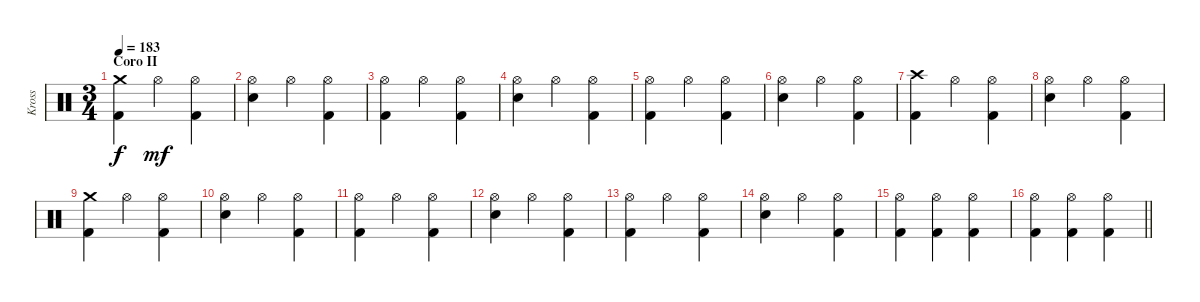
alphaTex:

\track ("Kross" "Kross") {instrument percussion}
\staff {score}
\articulation defaults
\ts (3 4)
\section ("" "Coro II")
\tempo 183
\clef neutral
\ks c
("Crash medium (hit)" "Kick (hit) 2").4{dy f} "Hi-Hat (open)".4{dy mf} ("Hi-Hat (open)" "Kick (hit) 2").4 |
("Hi-Hat (open)" "Electric Snare (hit)").4 "Hi-Hat (open)".4 ("Hi-Hat (open)" "Kick (hit) 2").4 |
("Hi-Hat (open)" "Kick (hit) 2").4 "Hi-Hat (open)".4 ("Hi-Hat (open)" "Kick (hit) 2").4 |
("Hi-Hat (open)" "Electric Snare (hit)").4 "Hi-Hat (open)".4 ("Hi-Hat (open)" "Kick (hit) 2").4 |
("Hi-Hat (open)" "Kick (hit) 2").4 "Hi-Hat (open)".4 ("Hi-Hat (open)" "Kick (hit) 2").4 |
("Hi-Hat (open)" "Electric Snare (hit)").4 "Hi-Hat (open)".4 ("Hi-Hat (open)" "Kick (hit) 2").4 |
("Crash high (hit)" "Kick (hit) 2").4 "Hi-Hat (open)".4 ("Hi-Hat (open)" "Kick (hit) 2").4 |
("Hi-Hat (open)" "Electric Snare (hit)").4 "Hi-Hat (open)".4 ("Hi-Hat (open)" "Kick (hit) 2").4 |
("Crash medium (hit)" "Kick (hit) 2").4 "Hi-Hat (open)".4 ("Hi-Hat (open)" "Kick (hit) 2").4 |
("Hi-Hat (open)" "Electric Snare (hit)").4 "Hi-Hat (open)".4 ("Hi-Hat (open)" "Kick (hit) 2").4 |
("Hi-Hat (open)" "Kick (hit) 2").4 "Hi-Hat (open)".4 ("Hi-Hat (open)" "Kick (hit) 2").4 |
("Hi-Hat (open)" "Electric Snare (hit)").4 "Hi-Hat (open)".4 ("Hi-Hat (open)" "Kick (hit) 2").4 |
("Hi-Hat (open)" "Kick (hit) 2").4 "Hi-Hat (open)".4 ("Hi-Hat (open)" "Kick (hit) 2").4 |
("Hi-Hat (open)" "Electric Snare (hit)").4 "Hi-Hat (open)".4 ("Hi-Hat (open)" "Kick (hit) 2").4 |
("Hi-Hat (open)" "Kick (hit) 2").4 ("Hi-Hat (open)" "Kick (hit) 2").4 ("Hi-Hat (open)" "Kick (hit) 2").4 |
\barLineRight lightlight
("Hi-Hat (open)" "Kick (hit) 2").4 ("Hi-Hat (open)" "Kick (hit) 2").4 ("Hi-Hat (open)" "Kick (hit) 2").4
